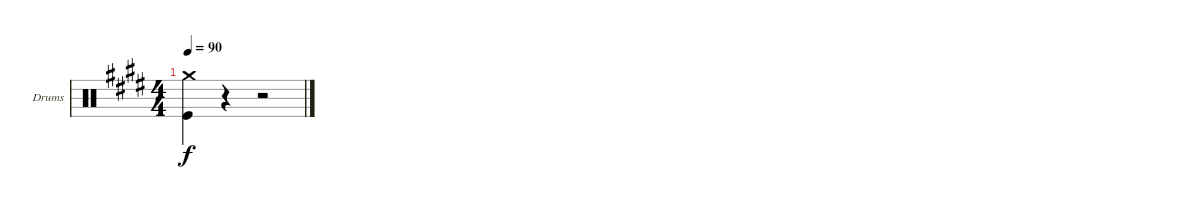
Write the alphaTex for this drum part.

\bracketExtendMode groupsimilarinstruments
\firstSystemTrackNameOrientation horizontal
\otherSystemsTrackNameOrientation horizontal
\track ("Drumkit" "Drums") {instrument percussion}
\staff {score}
\articulation defaults
\ts (4 4)
\tempo 90
\clef neutral
\ks e
("Crash medium (hit)" "Kick (hit)").4{dy f} r.4 r.2
